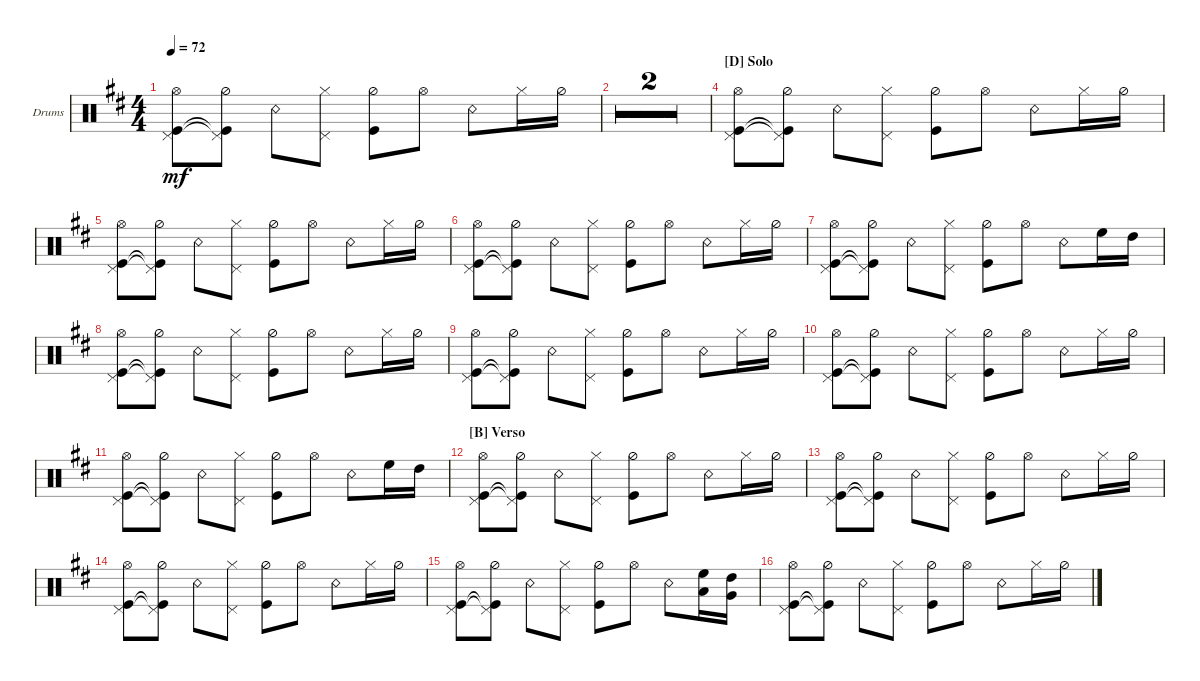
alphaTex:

\defaultSystemsLayout 4
\bracketExtendMode groupsimilarinstruments
\firstSystemTrackNameOrientation horizontal
\otherSystemsTrackNameOrientation horizontal
\track ("Drum" "Drums") {multiBarRest instrument percussion}
\staff {score}
\articulation defaults
\ts (4 4)
\tempo 72
\clef neutral
\ks d
("Kick (hit)" "Pedal Hi-Hat (hit)" "Hi-Hat (open)").8{dy mf} ("Kick (hit)"{t} "Pedal Hi-Hat (hit)"{t} "Hi-Hat (half)").8 "Snare (rim shot)".8 ("Hi-Hat (closed)" "Pedal Hi-Hat (hit)").8 ("Hi-Hat (half)" "Kick (hit)").8 "Hi-Hat (open)".8 "Snare (rim shot)".8 "Hi-Hat (closed)".16 "Hi-Hat (half)".16 |
|
|
\section ("D" "Solo")
("Kick (hit)" "Pedal Hi-Hat (hit)" "Hi-Hat (open)").8 ("Kick (hit)"{t} "Pedal Hi-Hat (hit)"{t} "Hi-Hat (half)").8 "Snare (rim shot)".8 ("Hi-Hat (closed)" "Pedal Hi-Hat (hit)").8 ("Hi-Hat (half)" "Kick (hit)").8 "Hi-Hat (open)".8 "Snare (rim shot)".8 "Hi-Hat (closed)".16 "Hi-Hat (half)".16 |
("Kick (hit)" "Pedal Hi-Hat (hit)" "Hi-Hat (open)").8 ("Kick (hit)"{t} "Pedal Hi-Hat (hit)"{t} "Hi-Hat (half)").8 "Snare (rim shot)".8 ("Hi-Hat (closed)" "Pedal Hi-Hat (hit)").8 ("Hi-Hat (half)" "Kick (hit)").8 "Hi-Hat (open)".8 "Snare (rim shot)".8 "Hi-Hat (closed)".16 "Hi-Hat (half)".16 |
("Kick (hit)" "Pedal Hi-Hat (hit)" "Hi-Hat (open)").8 ("Kick (hit)"{t} "Pedal Hi-Hat (hit)"{t} "Hi-Hat (half)").8 "Snare (rim shot)".8 ("Hi-Hat (closed)" "Pedal Hi-Hat (hit)").8 ("Hi-Hat (half)" "Kick (hit)").8 "Hi-Hat (open)".8 "Snare (rim shot)".8 "Hi-Hat (closed)".16 "Hi-Hat (half)".16 |
("Kick (hit)" "Pedal Hi-Hat (hit)" "Hi-Hat (open)").8 ("Kick (hit)"{t} "Pedal Hi-Hat (hit)"{t} "Hi-Hat (half)").8 "Snare (rim shot)".8 ("Hi-Hat (closed)" "Pedal Hi-Hat (hit)").8 ("Hi-Hat (half)" "Kick (hit)").8 "Hi-Hat (open)".8 "Snare (rim shot)".8 "High Floor Tom (hit)".16 "High Tom (hit)".16 |
("Kick (hit)" "Pedal Hi-Hat (hit)" "Hi-Hat (open)").8 ("Kick (hit)"{t} "Pedal Hi-Hat (hit)"{t} "Hi-Hat (half)").8 "Snare (rim shot)".8 ("Hi-Hat (closed)" "Pedal Hi-Hat (hit)").8 ("Hi-Hat (half)" "Kick (hit)").8 "Hi-Hat (open)".8 "Snare (rim shot)".8 "Hi-Hat (closed)".16 "Hi-Hat (half)".16 |
("Kick (hit)" "Pedal Hi-Hat (hit)" "Hi-Hat (open)").8 ("Kick (hit)"{t} "Pedal Hi-Hat (hit)"{t} "Hi-Hat (half)").8 "Snare (rim shot)".8 ("Hi-Hat (closed)" "Pedal Hi-Hat (hit)").8 ("Hi-Hat (half)" "Kick (hit)").8 "Hi-Hat (open)".8 "Snare (rim shot)".8 "Hi-Hat (closed)".16 "Hi-Hat (half)".16 |
("Kick (hit)" "Pedal Hi-Hat (hit)" "Hi-Hat (open)").8 ("Kick (hit)"{t} "Pedal Hi-Hat (hit)"{t} "Hi-Hat (half)").8 "Snare (rim shot)".8 ("Hi-Hat (closed)" "Pedal Hi-Hat (hit)").8 ("Hi-Hat (half)" "Kick (hit)").8 "Hi-Hat (open)".8 "Snare (rim shot)".8 "Hi-Hat (closed)".16 "Hi-Hat (half)".16 |
("Kick (hit)" "Pedal Hi-Hat (hit)" "Hi-Hat (open)").8 ("Kick (hit)"{t} "Pedal Hi-Hat (hit)"{t} "Hi-Hat (half)").8 "Snare (rim shot)".8 ("Hi-Hat (closed)" "Pedal Hi-Hat (hit)").8 ("Hi-Hat (half)" "Kick (hit)").8 "Hi-Hat (open)".8 "Snare (rim shot)".8 "High Floor Tom (hit)".16 "High Tom (hit)".16 |
\section ("B" "Verso")
("Kick (hit)" "Pedal Hi-Hat (hit)" "Hi-Hat (open)").8 ("Kick (hit)"{t} "Pedal Hi-Hat (hit)"{t} "Hi-Hat (half)").8 "Snare (rim shot)".8 ("Hi-Hat (closed)" "Pedal Hi-Hat (hit)").8 ("Hi-Hat (half)" "Kick (hit)").8 "Hi-Hat (open)".8 "Snare (rim shot)".8 "Hi-Hat (closed)".16 "Hi-Hat (half)".16 |
("Kick (hit)" "Pedal Hi-Hat (hit)" "Hi-Hat (open)").8 ("Kick (hit)"{t} "Pedal Hi-Hat (hit)"{t} "Hi-Hat (half)").8 "Snare (rim shot)".8 ("Hi-Hat (closed)" "Pedal Hi-Hat (hit)").8 ("Hi-Hat (half)" "Kick (hit)").8 "Hi-Hat (open)".8 "Snare (rim shot)".8 "Hi-Hat (closed)".16 "Hi-Hat (half)".16 |
("Kick (hit)" "Pedal Hi-Hat (hit)" "Hi-Hat (open)").8 ("Kick (hit)"{t} "Pedal Hi-Hat (hit)"{t} "Hi-Hat (half)").8 "Snare (rim shot)".8 ("Hi-Hat (closed)" "Pedal Hi-Hat (hit)").8 ("Hi-Hat (half)" "Kick (hit)").8 "Hi-Hat (open)".8 "Snare (rim shot)".8 "Hi-Hat (closed)".16 "Hi-Hat (half)".16 |
("Kick (hit)" "Pedal Hi-Hat (hit)" "Hi-Hat (open)").8 ("Kick (hit)"{t} "Pedal Hi-Hat (hit)"{t} "Hi-Hat (half)").8 "Snare (rim shot)".8 ("Hi-Hat (closed)" "Pedal Hi-Hat (hit)").8 ("Hi-Hat (half)" "Kick (hit)").8 "Hi-Hat (open)".8 "Snare (rim shot)".8 ("High Floor Tom (hit)" "Low Tom (hit)").16 ("High Tom (hit)" "Very Low Tom (hit)").16 |
("Kick (hit)" "Pedal Hi-Hat (hit)" "Hi-Hat (open)").8 ("Kick (hit)"{t} "Pedal Hi-Hat (hit)"{t} "Hi-Hat (half)").8 "Snare (rim shot)".8 ("Hi-Hat (closed)" "Pedal Hi-Hat (hit)").8 ("Hi-Hat (half)" "Kick (hit)").8 "Hi-Hat (open)".8 "Snare (rim shot)".8 "Hi-Hat (closed)".16 "Hi-Hat (half)".16
